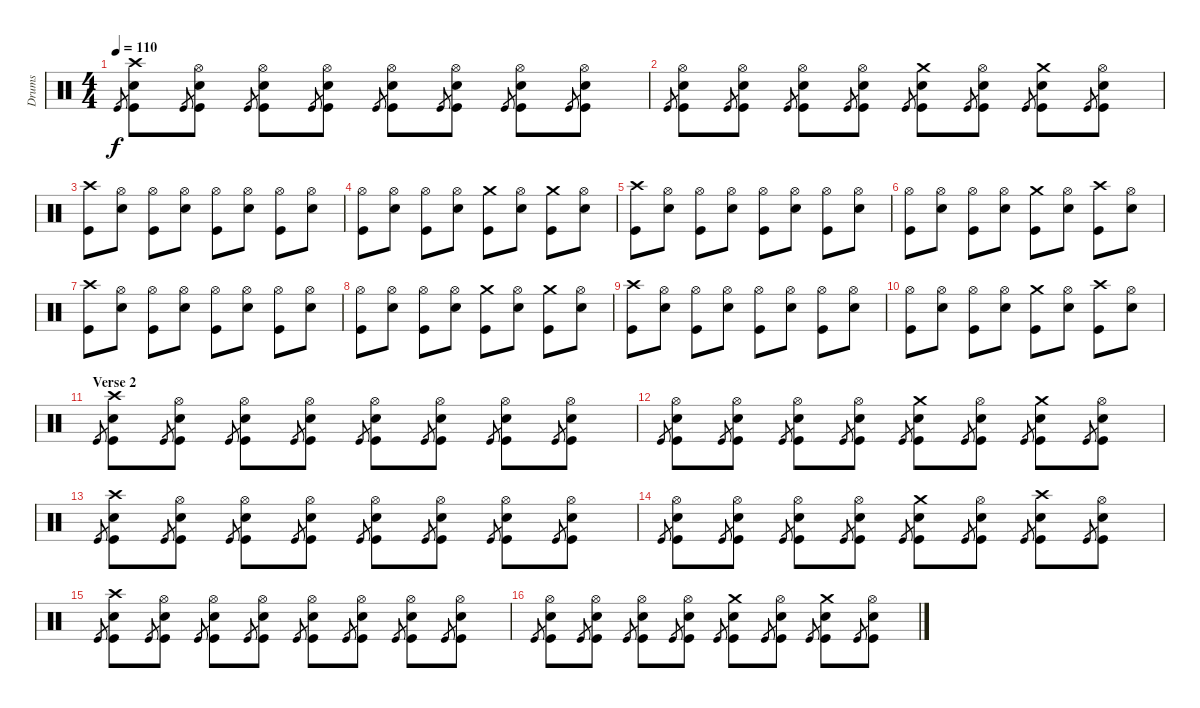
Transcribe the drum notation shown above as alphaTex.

\track ("Drums" "Drums") {instrument percussion}
\staff {score}
\articulation defaults
\ts (4 4)
\tempo 110
\clef neutral
\ks c "Kick (hit)".8{gr dy f}
("Crash high (hit)" "Snare (hit) 2" "Kick (hit)").8 "Kick (hit)".8{gr} ("Hi-Hat (open)" "Snare (hit) 2" "Kick (hit)").8 "Kick (hit)".8{gr} ("Hi-Hat (open)" "Snare (hit) 2" "Kick (hit)").8 "Kick (hit)".8{gr} ("Hi-Hat (open)" "Snare (hit) 2" "Kick (hit)").8 "Kick (hit)".8{gr} ("Hi-Hat (open)" "Snare (hit) 2" "Kick (hit)").8 "Kick (hit)".8{gr} ("Hi-Hat (open)" "Snare (hit) 2" "Kick (hit)").8 "Kick (hit)".8{gr} ("Hi-Hat (open)" "Snare (hit) 2" "Kick (hit)").8 "Kick (hit)".8{gr} ("Hi-Hat (open)" "Snare (hit) 2" "Kick (hit)").8 |
"Kick (hit)".8{gr} ("Hi-Hat (open)" "Snare (hit) 2" "Kick (hit)").8 "Kick (hit)".8{gr} ("Hi-Hat (open)" "Snare (hit) 2" "Kick (hit)").8 "Kick (hit)".8{gr} ("Hi-Hat (open)" "Snare (hit) 2" "Kick (hit)").8 "Kick (hit)".8{gr} ("Hi-Hat (open)" "Snare (hit) 2" "Kick (hit)").8 "Kick (hit)".8{gr} ("Crash medium (hit)" "Snare (hit) 2" "Kick (hit)").8 "Kick (hit)".8{gr} ("Hi-Hat (open)" "Snare (hit) 2" "Kick (hit)").8 "Kick (hit)".8{gr} ("Crash medium (hit)" "Snare (hit) 2" "Kick (hit)").8 "Kick (hit)".8{gr} ("Hi-Hat (open)" "Snare (hit) 2" "Kick (hit)").8 |
("Crash high (hit)" "Kick (hit)").8 ("Hi-Hat (open)" "Snare (hit) 2").8 ("Hi-Hat (open)" "Kick (hit)").8 ("Hi-Hat (open)" "Snare (hit) 2").8 ("Hi-Hat (open)" "Kick (hit)").8 ("Hi-Hat (open)" "Snare (hit) 2").8 ("Hi-Hat (open)" "Kick (hit)").8 ("Hi-Hat (open)" "Snare (hit) 2").8 |
("Hi-Hat (open)" "Kick (hit)").8 ("Hi-Hat (open)" "Snare (hit) 2").8 ("Hi-Hat (open)" "Kick (hit)").8 ("Hi-Hat (open)" "Snare (hit) 2").8 ("Crash medium (hit)" "Kick (hit)").8 ("Hi-Hat (open)" "Snare (hit) 2").8 ("Crash medium (hit)" "Kick (hit)").8 ("Hi-Hat (open)" "Snare (hit) 2").8 |
("Crash high (hit)" "Kick (hit)").8 ("Hi-Hat (open)" "Snare (hit) 2").8 ("Hi-Hat (open)" "Kick (hit)").8 ("Hi-Hat (open)" "Snare (hit) 2").8 ("Hi-Hat (open)" "Kick (hit)").8 ("Hi-Hat (open)" "Snare (hit) 2").8 ("Hi-Hat (open)" "Kick (hit)").8 ("Hi-Hat (open)" "Snare (hit) 2").8 |
("Hi-Hat (open)" "Kick (hit)").8 ("Hi-Hat (open)" "Snare (hit) 2").8 ("Hi-Hat (open)" "Kick (hit)").8 ("Hi-Hat (open)" "Snare (hit) 2").8 ("Crash medium (hit)" "Kick (hit)").8 ("Hi-Hat (open)" "Snare (hit) 2").8 ("Crash high (hit)" "Kick (hit)").8 ("Hi-Hat (open)" "Snare (hit) 2").8 |
("Crash high (hit)" "Kick (hit)").8 ("Hi-Hat (open)" "Snare (hit) 2").8 ("Hi-Hat (open)" "Kick (hit)").8 ("Hi-Hat (open)" "Snare (hit) 2").8 ("Hi-Hat (open)" "Kick (hit)").8 ("Hi-Hat (open)" "Snare (hit) 2").8 ("Hi-Hat (open)" "Kick (hit)").8 ("Hi-Hat (open)" "Snare (hit) 2").8 |
("Hi-Hat (open)" "Kick (hit)").8 ("Hi-Hat (open)" "Snare (hit) 2").8 ("Hi-Hat (open)" "Kick (hit)").8 ("Hi-Hat (open)" "Snare (hit) 2").8 ("Crash medium (hit)" "Kick (hit)").8 ("Hi-Hat (open)" "Snare (hit) 2").8 ("Crash medium (hit)" "Kick (hit)").8 ("Hi-Hat (open)" "Snare (hit) 2").8 |
("Crash high (hit)" "Kick (hit)").8 ("Hi-Hat (open)" "Snare (hit) 2").8 ("Hi-Hat (open)" "Kick (hit)").8 ("Hi-Hat (open)" "Snare (hit) 2").8 ("Hi-Hat (open)" "Kick (hit)").8 ("Hi-Hat (open)" "Snare (hit) 2").8 ("Hi-Hat (open)" "Kick (hit)").8 ("Hi-Hat (open)" "Snare (hit) 2").8 |
("Hi-Hat (open)" "Kick (hit)").8 ("Hi-Hat (open)" "Snare (hit) 2").8 ("Hi-Hat (open)" "Kick (hit)").8 ("Hi-Hat (open)" "Snare (hit) 2").8 ("Crash medium (hit)" "Kick (hit)").8 ("Hi-Hat (open)" "Snare (hit) 2").8 ("Crash high (hit)" "Kick (hit)").8 ("Hi-Hat (open)" "Snare (hit) 2").8 |
\section ("" "Verse 2")
"Kick (hit)".8{gr} ("Crash high (hit)" "Snare (hit) 2" "Kick (hit)").8 "Kick (hit)".8{gr} ("Hi-Hat (open)" "Snare (hit) 2" "Kick (hit)").8 "Kick (hit)".8{gr} ("Hi-Hat (open)" "Snare (hit) 2" "Kick (hit)").8 "Kick (hit)".8{gr} ("Hi-Hat (open)" "Snare (hit) 2" "Kick (hit)").8 "Kick (hit)".8{gr} ("Hi-Hat (open)" "Snare (hit) 2" "Kick (hit)").8 "Kick (hit)".8{gr} ("Hi-Hat (open)" "Snare (hit) 2" "Kick (hit)").8 "Kick (hit)".8{gr} ("Hi-Hat (open)" "Snare (hit) 2" "Kick (hit)").8 "Kick (hit)".8{gr} ("Hi-Hat (open)" "Snare (hit) 2" "Kick (hit)").8 |
"Kick (hit)".8{gr} ("Hi-Hat (open)" "Snare (hit) 2" "Kick (hit)").8 "Kick (hit)".8{gr} ("Hi-Hat (open)" "Snare (hit) 2" "Kick (hit)").8 "Kick (hit)".8{gr} ("Hi-Hat (open)" "Snare (hit) 2" "Kick (hit)").8 "Kick (hit)".8{gr} ("Hi-Hat (open)" "Snare (hit) 2" "Kick (hit)").8 "Kick (hit)".8{gr} ("Crash medium (hit)" "Snare (hit) 2" "Kick (hit)").8 "Kick (hit)".8{gr} ("Hi-Hat (open)" "Snare (hit) 2" "Kick (hit)").8 "Kick (hit)".8{gr} ("Crash medium (hit)" "Snare (hit) 2" "Kick (hit)").8 "Kick (hit)".8{gr} ("Hi-Hat (open)" "Snare (hit) 2" "Kick (hit)").8 |
"Kick (hit)".8{gr} ("Crash high (hit)" "Snare (hit) 2" "Kick (hit)").8 "Kick (hit)".8{gr} ("Hi-Hat (open)" "Snare (hit) 2" "Kick (hit)").8 "Kick (hit)".8{gr} ("Hi-Hat (open)" "Snare (hit) 2" "Kick (hit)").8 "Kick (hit)".8{gr} ("Hi-Hat (open)" "Snare (hit) 2" "Kick (hit)").8 "Kick (hit)".8{gr} ("Hi-Hat (open)" "Snare (hit) 2" "Kick (hit)").8 "Kick (hit)".8{gr} ("Hi-Hat (open)" "Snare (hit) 2" "Kick (hit)").8 "Kick (hit)".8{gr} ("Hi-Hat (open)" "Snare (hit) 2" "Kick (hit)").8 "Kick (hit)".8{gr} ("Hi-Hat (open)" "Snare (hit) 2" "Kick (hit)").8 |
"Kick (hit)".8{gr} ("Hi-Hat (open)" "Snare (hit) 2" "Kick (hit)").8 "Kick (hit)".8{gr} ("Hi-Hat (open)" "Snare (hit) 2" "Kick (hit)").8 "Kick (hit)".8{gr} ("Hi-Hat (open)" "Snare (hit) 2" "Kick (hit)").8 "Kick (hit)".8{gr} ("Hi-Hat (open)" "Snare (hit) 2" "Kick (hit)").8 "Kick (hit)".8{gr} ("Crash medium (hit)" "Snare (hit) 2" "Kick (hit)").8 "Kick (hit)".8{gr} ("Hi-Hat (open)" "Snare (hit) 2" "Kick (hit)").8 "Kick (hit)".8{gr} ("Crash high (hit)" "Snare (hit) 2" "Kick (hit)").8 "Kick (hit)".8{gr} ("Hi-Hat (open)" "Snare (hit) 2" "Kick (hit)").8 |
"Kick (hit)".8{gr} ("Crash high (hit)" "Snare (hit) 2" "Kick (hit)").8 "Kick (hit)".8{gr} ("Hi-Hat (open)" "Snare (hit) 2" "Kick (hit)").8 "Kick (hit)".8{gr} ("Hi-Hat (open)" "Snare (hit) 2" "Kick (hit)").8 "Kick (hit)".8{gr} ("Hi-Hat (open)" "Snare (hit) 2" "Kick (hit)").8 "Kick (hit)".8{gr} ("Hi-Hat (open)" "Snare (hit) 2" "Kick (hit)").8 "Kick (hit)".8{gr} ("Hi-Hat (open)" "Snare (hit) 2" "Kick (hit)").8 "Kick (hit)".8{gr} ("Hi-Hat (open)" "Snare (hit) 2" "Kick (hit)").8 "Kick (hit)".8{gr} ("Hi-Hat (open)" "Snare (hit) 2" "Kick (hit)").8 |
"Kick (hit)".8{gr} ("Hi-Hat (open)" "Snare (hit) 2" "Kick (hit)").8 "Kick (hit)".8{gr} ("Hi-Hat (open)" "Snare (hit) 2" "Kick (hit)").8 "Kick (hit)".8{gr} ("Hi-Hat (open)" "Snare (hit) 2" "Kick (hit)").8 "Kick (hit)".8{gr} ("Hi-Hat (open)" "Snare (hit) 2" "Kick (hit)").8 "Kick (hit)".8{gr} ("Crash medium (hit)" "Snare (hit) 2" "Kick (hit)").8 "Kick (hit)".8{gr} ("Hi-Hat (open)" "Snare (hit) 2" "Kick (hit)").8 "Kick (hit)".8{gr} ("Crash medium (hit)" "Snare (hit) 2" "Kick (hit)").8 "Kick (hit)".8{gr} ("Hi-Hat (open)" "Snare (hit) 2" "Kick (hit)").8
